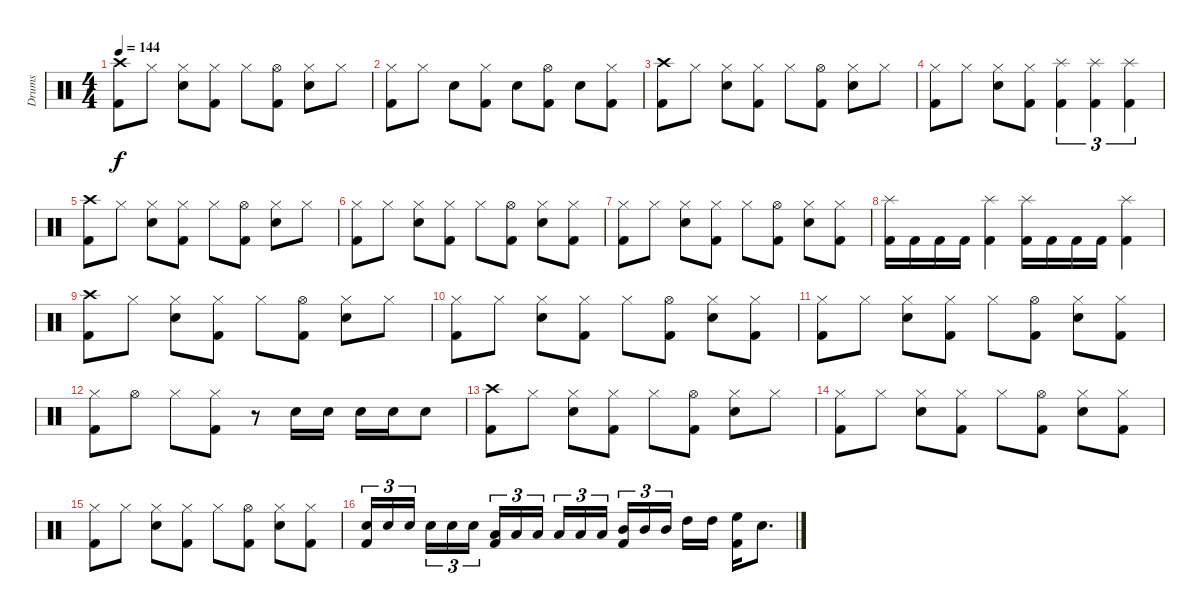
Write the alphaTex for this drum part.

\track ("Drums" "Drums") {instrument percussion}
\staff {score}
\articulation defaults
\ts (4 4)
\tempo 144
\clef neutral
\ks c
("Crash high (hit)" "Kick (hit) 2").8{dy f} "Hi-Hat (closed)".8 ("Hi-Hat (closed)" "Snare (hit) 2").8 ("Hi-Hat (closed)" "Kick (hit) 2").8 "Hi-Hat (closed)".8 ("Hi-Hat (open)" "Kick (hit) 2").8 ("Hi-Hat (closed)" "Snare (hit) 2").8 "Hi-Hat (closed)".8 |
("Hi-Hat (closed)" "Kick (hit) 2").8 "Hi-Hat (closed)".8 "Snare (hit) 2".8 ("Hi-Hat (closed)" "Kick (hit) 2").8 "Snare (hit) 2".8 ("Hi-Hat (open)" "Kick (hit) 2").8 "Snare (hit) 2".8 ("Hi-Hat (closed)" "Kick (hit) 2").8 |
("Crash high (hit)" "Kick (hit) 2").8 "Hi-Hat (closed)".8 ("Hi-Hat (closed)" "Snare (hit) 2").8 ("Hi-Hat (closed)" "Kick (hit) 2").8 "Hi-Hat (closed)".8 ("Hi-Hat (open)" "Kick (hit) 2").8 ("Hi-Hat (closed)" "Snare (hit) 2").8 "Hi-Hat (closed)".8 |
("Hi-Hat (closed)" "Kick (hit) 2").8 "Hi-Hat (closed)".8 ("Hi-Hat (closed)" "Snare (hit) 2").8 ("Hi-Hat (closed)" "Kick (hit) 2").8 ("Splash (hit)" "Kick (hit) 2").4{tu (3 2)} ("Splash (hit)" "Kick (hit) 2").4{tu (3 2)} ("Splash (hit)" "Kick (hit) 2").4{tu (3 2)} |
("Crash high (hit)" "Kick (hit) 2").8 "Hi-Hat (closed)".8 ("Hi-Hat (closed)" "Snare (hit) 2").8 ("Hi-Hat (closed)" "Kick (hit) 2").8 "Hi-Hat (closed)".8 ("Hi-Hat (open)" "Kick (hit) 2").8 ("Hi-Hat (closed)" "Snare (hit) 2").8 "Hi-Hat (closed)".8 |
("Hi-Hat (closed)" "Kick (hit) 2").8 "Hi-Hat (closed)".8 ("Hi-Hat (closed)" "Snare (hit) 2").8 ("Hi-Hat (closed)" "Kick (hit) 2").8 "Hi-Hat (closed)".8 ("Hi-Hat (open)" "Kick (hit) 2").8 ("Hi-Hat (closed)" "Snare (hit) 2").8 ("Hi-Hat (closed)" "Kick (hit) 2").8 |
("Hi-Hat (closed)" "Kick (hit) 2").8 "Hi-Hat (closed)".8 ("Hi-Hat (closed)" "Snare (hit) 2").8 ("Hi-Hat (closed)" "Kick (hit) 2").8 "Hi-Hat (closed)".8 ("Hi-Hat (open)" "Kick (hit) 2").8 ("Hi-Hat (closed)" "Snare (hit) 2").8 ("Hi-Hat (closed)" "Kick (hit) 2").8 |
("Splash (hit)" "Kick (hit) 2").16 "Kick (hit) 2".16 "Kick (hit) 2".16 "Kick (hit) 2".16 ("Splash (hit)" "Kick (hit) 2").4 ("Splash (hit)" "Kick (hit) 2").16 "Kick (hit) 2".16 "Kick (hit) 2".16 "Kick (hit) 2".16 ("Splash (hit)" "Kick (hit) 2").4 |
("Crash high (hit)" "Kick (hit) 2").8 "Hi-Hat (closed)".8 ("Hi-Hat (closed)" "Snare (hit) 2").8 ("Hi-Hat (closed)" "Kick (hit) 2").8 "Hi-Hat (closed)".8 ("Hi-Hat (open)" "Kick (hit) 2").8 ("Hi-Hat (closed)" "Snare (hit) 2").8 "Hi-Hat (closed)".8 |
("Hi-Hat (closed)" "Kick (hit) 2").8 "Hi-Hat (closed)".8 ("Hi-Hat (closed)" "Snare (hit) 2").8 ("Hi-Hat (closed)" "Kick (hit) 2").8 "Hi-Hat (closed)".8 ("Hi-Hat (open)" "Kick (hit) 2").8 ("Hi-Hat (closed)" "Snare (hit) 2").8 ("Hi-Hat (closed)" "Kick (hit) 2").8 |
("Hi-Hat (closed)" "Kick (hit) 2").8 "Hi-Hat (closed)".8 ("Hi-Hat (closed)" "Snare (hit) 2").8 ("Hi-Hat (closed)" "Kick (hit) 2").8 "Hi-Hat (closed)".8 ("Hi-Hat (open)" "Kick (hit) 2").8 ("Hi-Hat (closed)" "Snare (hit) 2").8 ("Hi-Hat (closed)" "Kick (hit) 2").8 |
("Hi-Hat (closed)" "Kick (hit) 2").8 "Hi-Hat (open)".8 "Hi-Hat (closed)".8 ("Hi-Hat (closed)" "Kick (hit) 2").8 r.8 "Snare (hit) 2".16 "Snare (hit) 2".16 "Snare (hit) 2".16 "Snare (hit) 2".16 "Snare (hit) 2".8 |
("Crash high (hit)" "Kick (hit) 2").8 "Hi-Hat (closed)".8 ("Hi-Hat (closed)" "Snare (hit) 2").8 ("Hi-Hat (closed)" "Kick (hit) 2").8 "Hi-Hat (closed)".8 ("Hi-Hat (open)" "Kick (hit) 2").8 ("Hi-Hat (closed)" "Snare (hit) 2").8 "Hi-Hat (closed)".8 |
("Hi-Hat (closed)" "Kick (hit) 2").8 "Hi-Hat (closed)".8 ("Hi-Hat (closed)" "Snare (hit) 2").8 ("Hi-Hat (closed)" "Kick (hit) 2").8 "Hi-Hat (closed)".8 ("Hi-Hat (open)" "Kick (hit) 2").8 ("Hi-Hat (closed)" "Snare (hit) 2").8 ("Hi-Hat (closed)" "Kick (hit) 2").8 |
("Hi-Hat (closed)" "Kick (hit) 2").8 "Hi-Hat (closed)".8 ("Hi-Hat (closed)" "Snare (hit) 2").8 ("Hi-Hat (closed)" "Kick (hit) 2").8 "Hi-Hat (closed)".8 ("Hi-Hat (open)" "Kick (hit) 2").8 ("Hi-Hat (closed)" "Snare (hit) 2").8 ("Hi-Hat (closed)" "Kick (hit) 2").8 |
("Snare (hit) 2" "Kick (hit) 2").16{tu (3 2)} "Snare (hit) 2".16{tu (3 2)} "Snare (hit) 2".16{tu (3 2) beam splitsecondary} "Snare (hit) 2".16{tu (3 2)} "Snare (hit) 2".16{tu (3 2)} "Snare (hit) 2".16{tu (3 2)} ("Low Floor Tom (hit)" "Kick (hit) 2").16{tu (3 2)} "Low Floor Tom (hit)".16{tu (3 2)} "Low Floor Tom (hit)".16{tu (3 2) beam splitsecondary} "Low Tom (hit)".16{tu (3 2)} "Low Tom (hit)".16{tu (3 2)} "Low Tom (hit)".16{tu (3 2)} ("Mid Tom (hit)" "Kick (hit) 2").16{tu (3 2)} "Mid Tom (hit)".16{tu (3 2)} "Mid Tom (hit)".16{tu (3 2) beam splitsecondary} "High Tom (hit)".16 "High Tom (hit)".16 ("High Floor Tom (hit)" "Kick (hit) 2").16 "Snare (hit) 2".8{d}
